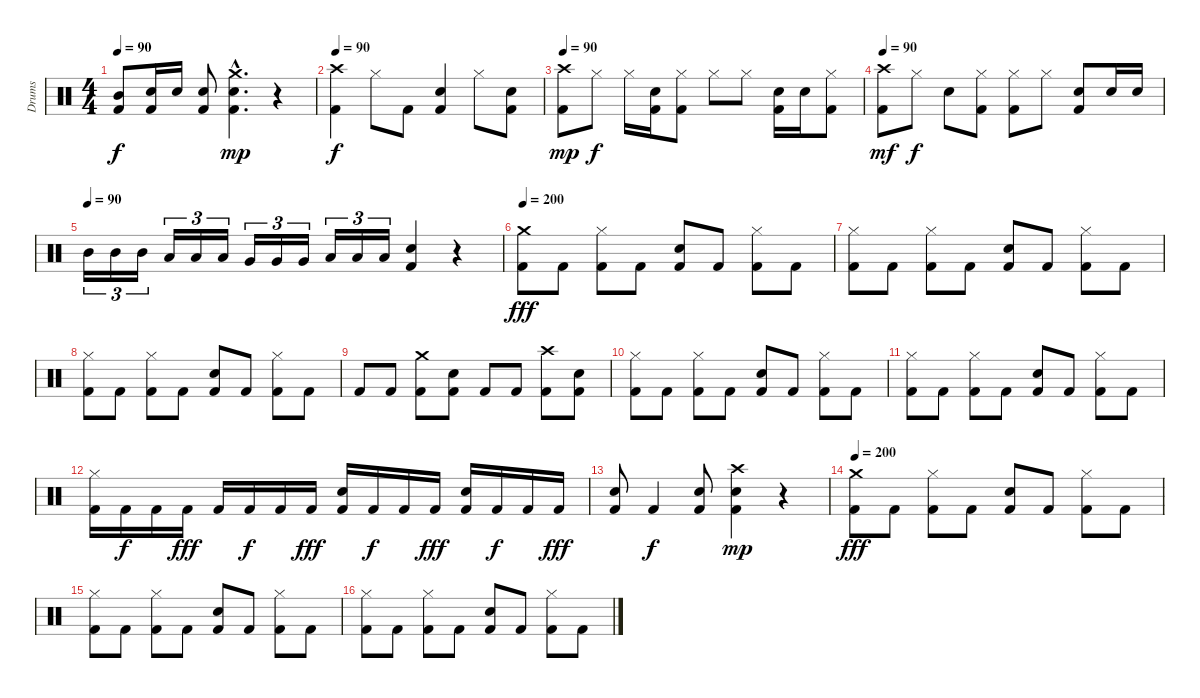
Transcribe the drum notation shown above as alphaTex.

\track ("Drums" "Drums") {instrument percussion}
\staff {score}
\articulation defaults
\ts (4 4)
\tempo 90
\clef neutral
\ks c
("Mid Tom (hit)" "Kick (hit) 2").8{dy f} ("Electric Snare (hit)" "Kick (hit) 2").16 "Electric Snare (hit)".16 ("Electric Snare (hit)" "Kick (hit) 2").8 ("Crash medium (hit)"{hac} "Electric Snare (hit)"{hac} "Kick (hit) 2"{hac}).4{d dy mp} r.4 |
\tempo 90
("Crash high (hit)" "Kick (hit) 2").4{dy f} "Hi-Hat (closed)".8 "Kick (hit) 2".8 ("Electric Snare (hit)" "Kick (hit) 2").4 "Hi-Hat (closed)".8 ("Electric Snare (hit)" "Kick (hit) 2").8 |
\tempo 90
("Crash high (hit)" "Kick (hit) 2").8{dy mp} "Hi-Hat (closed)".8{dy f} "Hi-Hat (closed)".16 ("Electric Snare (hit)" "Kick (hit) 2").16 ("Hi-Hat (closed)" "Kick (hit) 2").8 "Hi-Hat (closed)".8 "Hi-Hat (closed)".8 ("Electric Snare (hit)" "Kick (hit) 2").16 "Electric Snare (hit)".16 ("Hi-Hat (closed)" "Kick (hit) 2").8 |
\tempo 90
("Crash high (hit)" "Kick (hit) 2").8{dy mf} "Hi-Hat (closed)".8{dy f} "Electric Snare (hit)".8 ("Hi-Hat (closed)" "Kick (hit) 2").8 ("Hi-Hat (closed)" "Kick (hit) 2").8 "Hi-Hat (closed)".8 ("Electric Snare (hit)" "Kick (hit) 2").8 "Electric Snare (hit)".16 "Electric Snare (hit)".16 |
\tempo (90)
"Mid Tom (hit)".16{tu (3 2)} "Mid Tom (hit)".16{tu (3 2)} "Mid Tom (hit)".16{tu (3 2)} "Low Tom (hit)".16{tu (3 2)} "Low Tom (hit)".16{tu (3 2)} "Low Tom (hit)".16{tu (3 2)} "Very Low Tom (hit)".16{tu (3 2)} "Very Low Tom (hit)".16{tu (3 2)} "Very Low Tom (hit)".16{tu (3 2)} "Low Tom (hit)".16{tu (3 2)} "Low Tom (hit)".16{tu (3 2)} "Low Tom (hit)".16{tu (3 2)} ("Electric Snare (hit)" "Kick (hit) 2").4 r.4 |
\tempo 200
("Crash medium (hit)" "Kick (hit) 2").8{dy fff} "Kick (hit) 2".8 ("Hi-Hat (closed)" "Kick (hit) 2").8 "Kick (hit) 2".8 ("Electric Snare (hit)" "Kick (hit) 2").8 "Kick (hit) 2".8 ("Hi-Hat (closed)" "Kick (hit) 2").8 "Kick (hit) 2".8 |
("Hi-Hat (closed)" "Kick (hit) 2").8 "Kick (hit) 2".8 ("Hi-Hat (closed)" "Kick (hit) 2").8 "Kick (hit) 2".8 ("Electric Snare (hit)" "Kick (hit) 2").8 "Kick (hit) 2".8 ("Hi-Hat (closed)" "Kick (hit) 2").8 "Kick (hit) 2".8 |
("Hi-Hat (closed)" "Kick (hit) 2").8 "Kick (hit) 2".8 ("Hi-Hat (closed)" "Kick (hit) 2").8 "Kick (hit) 2".8 ("Electric Snare (hit)" "Kick (hit) 2").8 "Kick (hit) 2".8 ("Hi-Hat (closed)" "Kick (hit) 2").8 "Kick (hit) 2".8 |
"Kick (hit) 2".8 "Kick (hit) 2".8 ("Crash medium (hit)" "Kick (hit) 2").8 ("Electric Snare (hit)" "Kick (hit) 2").8 "Kick (hit) 2".8 "Kick (hit) 2".8 ("Crash high (hit)" "Kick (hit) 2").8 ("Electric Snare (hit)" "Kick (hit) 2").8 |
("Hi-Hat (closed)" "Kick (hit) 2").8 "Kick (hit) 2".8 ("Hi-Hat (closed)" "Kick (hit) 2").8 "Kick (hit) 2".8 ("Electric Snare (hit)" "Kick (hit) 2").8 "Kick (hit) 2".8 ("Hi-Hat (closed)" "Kick (hit) 2").8 "Kick (hit) 2".8 |
("Hi-Hat (closed)" "Kick (hit) 2").8 "Kick (hit) 2".8 ("Hi-Hat (closed)" "Kick (hit) 2").8 "Kick (hit) 2".8 ("Electric Snare (hit)" "Kick (hit) 2").8 "Kick (hit) 2".8 ("Hi-Hat (closed)" "Kick (hit) 2").8 "Kick (hit) 2".8 |
("Hi-Hat (closed)" "Kick (hit) 2").16 "Kick (hit) 2".16{dy f} "Kick (hit) 2".16 "Kick (hit) 2".16{dy fff} "Kick (hit) 2".16 "Kick (hit) 2".16{dy f} "Kick (hit) 2".16 "Kick (hit) 2".16{dy fff} ("Electric Snare (hit)" "Kick (hit) 2").16 "Kick (hit) 2".16{dy f} "Kick (hit) 2".16 "Kick (hit) 2".16{dy fff} ("Electric Snare (hit)" "Kick (hit) 2").16 "Kick (hit) 2".16{dy f} "Kick (hit) 2".16 "Kick (hit) 2".16{dy fff} |
("Electric Snare (hit)" "Kick (hit) 2").8 "Kick (hit) 2".4{dy f} ("Electric Snare (hit)" "Kick (hit) 2").8 ("Crash high (hit)" "Electric Snare (hit)" "Kick (hit) 2").4{dy mp} r.4 |
\tempo 200
("Crash medium (hit)" "Kick (hit) 2").8{dy fff} "Kick (hit) 2".8 ("Hi-Hat (closed)" "Kick (hit) 2").8 "Kick (hit) 2".8 ("Electric Snare (hit)" "Kick (hit) 2").8 "Kick (hit) 2".8 ("Hi-Hat (closed)" "Kick (hit) 2").8 "Kick (hit) 2".8 |
("Hi-Hat (closed)" "Kick (hit) 2").8 "Kick (hit) 2".8 ("Hi-Hat (closed)" "Kick (hit) 2").8 "Kick (hit) 2".8 ("Electric Snare (hit)" "Kick (hit) 2").8 "Kick (hit) 2".8 ("Hi-Hat (closed)" "Kick (hit) 2").8 "Kick (hit) 2".8 |
("Hi-Hat (closed)" "Kick (hit) 2").8 "Kick (hit) 2".8 ("Hi-Hat (closed)" "Kick (hit) 2").8 "Kick (hit) 2".8 ("Electric Snare (hit)" "Kick (hit) 2").8 "Kick (hit) 2".8 ("Hi-Hat (closed)" "Kick (hit) 2").8 "Kick (hit) 2".8
